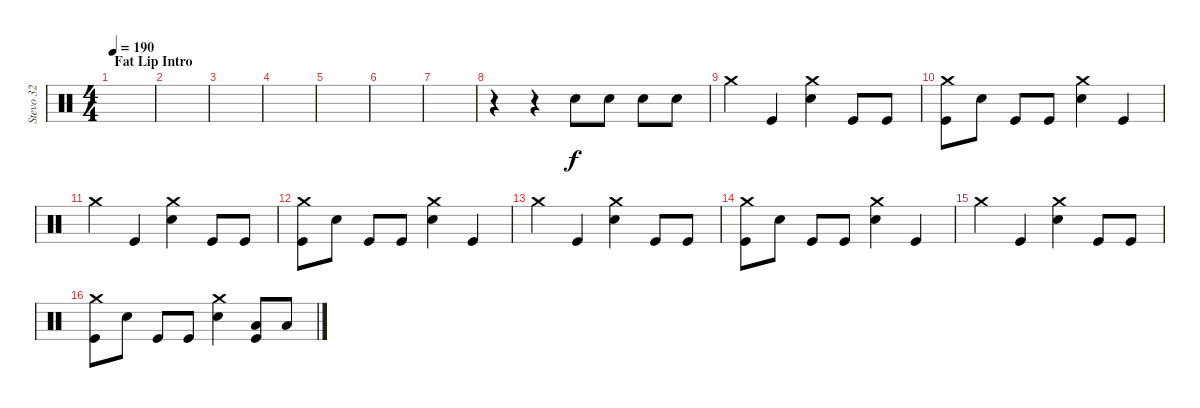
\track ("Stevo 32" "Stevo 32") {instrument percussion}
\staff {score}
\articulation defaults
\ts (4 4)
\section ("" "Fat Lip Intro")
\tempo 190
\clef neutral
\ks c
|
|
|
|
|
|
|
r.4 r.4 "Snare (hit) 2".8 "Snare (hit) 2".8 "Snare (hit) 2".8 "Snare (hit) 2".8 |
"Crash medium (hit)".4 "Kick (hit)".4 ("Crash medium (hit)" "Snare (hit) 2").4 "Kick (hit)".8 "Kick (hit)".8 |
("Crash medium (hit)" "Kick (hit)").8 "Snare (hit) 2".8 "Kick (hit)".8 "Kick (hit)".8 ("Crash medium (hit)" "Snare (hit) 2").4 "Kick (hit)".4 |
"Crash medium (hit)".4 "Kick (hit)".4 ("Crash medium (hit)" "Snare (hit) 2").4 "Kick (hit)".8 "Kick (hit)".8 |
("Crash medium (hit)" "Kick (hit)").8 "Snare (hit) 2".8 "Kick (hit)".8 "Kick (hit)".8 ("Crash medium (hit)" "Snare (hit) 2").4 "Kick (hit)".4 |
"Crash medium (hit)".4 "Kick (hit)".4 ("Crash medium (hit)" "Snare (hit) 2").4 "Kick (hit)".8 "Kick (hit)".8 |
("Crash medium (hit)" "Kick (hit)").8 "Snare (hit) 2".8 "Kick (hit)".8 "Kick (hit)".8 ("Crash medium (hit)" "Snare (hit) 2").4 "Kick (hit)".4 |
"Crash medium (hit)".4 "Kick (hit)".4 ("Crash medium (hit)" "Snare (hit) 2").4 "Kick (hit)".8 "Kick (hit)".8 |
("Crash medium (hit)" "Kick (hit)").8 "Snare (hit) 2".8 "Kick (hit)".8 "Kick (hit)".8 ("Crash medium (hit)" "Snare (hit) 2").4 ("Low Tom (hit)" "Kick (hit)").8 "Low Tom (hit)".8
